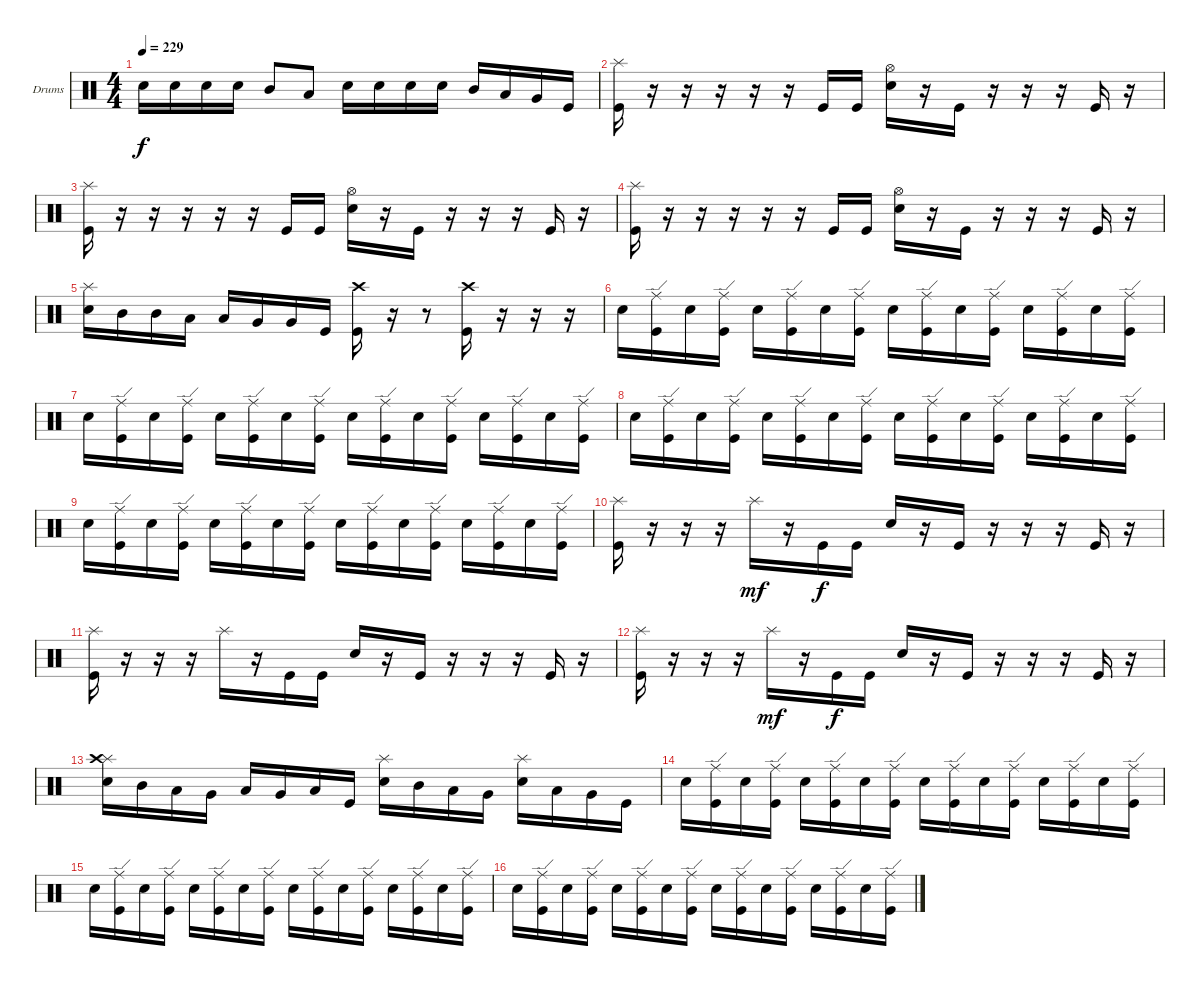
\defaultSystemsLayout 4
\bracketExtendMode groupsimilarinstruments
\firstSystemTrackNameOrientation horizontal
\otherSystemsTrackNameOrientation horizontal
\track ("Drumkit" "Drums") {instrument percussion}
\staff {score}
\articulation defaults
\ts (4 4)
\tempo 229
\clef neutral
\ks c "Snare (hit) 2".16{dy f} "Snare (hit) 2".16 "Snare (hit) 2".16 "Snare (hit) 2".16 "Mid Tom (hit)".8 "Low Tom (hit)".8 "Snare (hit) 2".16 "Snare (hit) 2".16 "Snare (hit) 2".16 "Snare (hit) 2".16 "Mid Tom (hit)".16 "Low Tom (hit)".16 "Very Low Tom (hit)".16 "Kick (hit)".16
|
("Kick (hit)" "Splash (hit)").16 r.16 r.16 r.16 r.16 r.16 "Kick (hit)".16 "Kick (hit)".16 ("Snare (hit) 2" "Hi-Hat (open)").16 r.16 "Kick (hit)".16 r.16 r.16 r.16 "Kick (hit)".16 r.16 |
("Kick (hit)" "Splash (hit)").16 r.16 r.16 r.16 r.16 r.16 "Kick (hit)".16 "Kick (hit)".16 ("Snare (hit) 2" "Hi-Hat (open)").16 r.16 "Kick (hit)".16 r.16 r.16 r.16 "Kick (hit)".16 r.16 |
("Kick (hit)" "Splash (hit)").16 r.16 r.16 r.16 r.16 r.16 "Kick (hit)".16 "Kick (hit)".16 ("Snare (hit) 2" "Hi-Hat (open)").16 r.16 "Kick (hit)".16 r.16 r.16 r.16 "Kick (hit)".16 r.16 |
("Splash (hit)" "Snare (hit) 2").16 "Mid Tom (hit)".16 "Mid Tom (hit)".16 "Low Tom (hit)".16 "Low Tom (hit)".16 "Very Low Tom (hit)".16 "Very Low Tom (hit)".16 "Kick (hit)".16 ("Kick (hit)" "Crash high (hit)").16 r.16 r.8 ("Kick (hit)" "Crash high (hit)").16 r.16 r.16 r.16 |
"Snare (hit) 2".16 ("Kick (hit)" "Ride (edge)").16 "Snare (hit) 2".16 ("Kick (hit)" "Ride (edge)").16 "Snare (hit) 2".16 ("Kick (hit)" "Ride (edge)").16 "Snare (hit) 2".16 ("Kick (hit)" "Ride (edge)").16 "Snare (hit) 2".16 ("Kick (hit)" "Ride (edge)").16 "Snare (hit) 2".16 ("Kick (hit)" "Ride (edge)").16 "Snare (hit) 2".16 ("Kick (hit)" "Ride (edge)").16 "Snare (hit) 2".16 ("Kick (hit)" "Ride (edge)").16 |
"Snare (hit) 2".16 ("Kick (hit)" "Ride (edge)").16 "Snare (hit) 2".16 ("Kick (hit)" "Ride (edge)").16 "Snare (hit) 2".16 ("Kick (hit)" "Ride (edge)").16 "Snare (hit) 2".16 ("Kick (hit)" "Ride (edge)").16 "Snare (hit) 2".16 ("Kick (hit)" "Ride (edge)").16 "Snare (hit) 2".16 ("Kick (hit)" "Ride (edge)").16 "Snare (hit) 2".16 ("Kick (hit)" "Ride (edge)").16 "Snare (hit) 2".16 ("Kick (hit)" "Ride (edge)").16 |
"Snare (hit) 2".16 ("Kick (hit)" "Ride (edge)").16 "Snare (hit) 2".16 ("Kick (hit)" "Ride (edge)").16 "Snare (hit) 2".16 ("Kick (hit)" "Ride (edge)").16 "Snare (hit) 2".16 ("Kick (hit)" "Ride (edge)").16 "Snare (hit) 2".16 ("Kick (hit)" "Ride (edge)").16 "Snare (hit) 2".16 ("Kick (hit)" "Ride (edge)").16 "Snare (hit) 2".16 ("Kick (hit)" "Ride (edge)").16 "Snare (hit) 2".16 ("Kick (hit)" "Ride (edge)").16 |
"Snare (hit) 2".16 ("Kick (hit)" "Ride (edge)").16 "Snare (hit) 2".16 ("Kick (hit)" "Ride (edge)").16 "Snare (hit) 2".16 ("Kick (hit)" "Ride (edge)").16 "Snare (hit) 2".16 ("Kick (hit)" "Ride (edge)").16 "Snare (hit) 2".16 ("Kick (hit)" "Ride (edge)").16 "Snare (hit) 2".16 ("Kick (hit)" "Ride (edge)").16 "Snare (hit) 2".16 ("Kick (hit)" "Ride (edge)").16 "Snare (hit) 2".16 ("Kick (hit)" "Ride (edge)").16 |
("Kick (hit)" "Splash (hit)").16 r.16 r.16 r.16 "Splash (hit)".16{dy mf} r.16 "Kick (hit)".16{dy f} "Kick (hit)".16 "Snare (hit) 2".16 r.16 "Kick (hit)".16 r.16 r.16 r.16 "Kick (hit)".16 r.16 |
("Kick (hit)" "Splash (hit)").16 r.16 r.16 r.16 "Splash (hit)".16 r.16 "Kick (hit)".16 "Kick (hit)".16 "Snare (hit) 2".16 r.16 "Kick (hit)".16 r.16 r.16 r.16 "Kick (hit)".16 r.16 |
("Kick (hit)" "Splash (hit)").16 r.16 r.16 r.16 "Splash (hit)".16{dy mf} r.16 "Kick (hit)".16{dy f} "Kick (hit)".16 "Snare (hit) 2".16 r.16 "Kick (hit)".16 r.16 r.16 r.16 "Kick (hit)".16 r.16 |
("Snare (hit) 2" "Splash (hit)" "Crash high (hit)").16 "Mid Tom (hit)".16 "Low Tom (hit)".16 "Very Low Tom (hit)".16 "Low Tom (hit)".16 "Very Low Tom (hit)".16 "Low Tom (hit)".16 "Kick (hit)".16 ("Snare (hit) 2" "Splash (hit)").16 "Mid Tom (hit)".16 "Low Tom (hit)".16 "Very Low Tom (hit)".16 ("Snare (hit) 2" "Splash (hit)").16 "Low Tom (hit)".16 "Very Low Tom (hit)".16 "Kick (hit)".16 |
"Snare (hit) 2".16 ("Kick (hit)" "Ride (edge)").16 "Snare (hit) 2".16 ("Kick (hit)" "Ride (edge)").16 "Snare (hit) 2".16 ("Kick (hit)" "Ride (edge)").16 "Snare (hit) 2".16 ("Kick (hit)" "Ride (edge)").16 "Snare (hit) 2".16 ("Kick (hit)" "Ride (edge)").16 "Snare (hit) 2".16 ("Kick (hit)" "Ride (edge)").16 "Snare (hit) 2".16 ("Kick (hit)" "Ride (edge)").16 "Snare (hit) 2".16 ("Kick (hit)" "Ride (edge)").16 |
"Snare (hit) 2".16 ("Kick (hit)" "Ride (edge)").16 "Snare (hit) 2".16 ("Kick (hit)" "Ride (edge)").16 "Snare (hit) 2".16 ("Kick (hit)" "Ride (edge)").16 "Snare (hit) 2".16 ("Kick (hit)" "Ride (edge)").16 "Snare (hit) 2".16 ("Kick (hit)" "Ride (edge)").16 "Snare (hit) 2".16 ("Kick (hit)" "Ride (edge)").16 "Snare (hit) 2".16 ("Kick (hit)" "Ride (edge)").16 "Snare (hit) 2".16 ("Kick (hit)" "Ride (edge)").16 |
"Snare (hit) 2".16 ("Kick (hit)" "Ride (edge)").16 "Snare (hit) 2".16 ("Kick (hit)" "Ride (edge)").16 "Snare (hit) 2".16 ("Kick (hit)" "Ride (edge)").16 "Snare (hit) 2".16 ("Kick (hit)" "Ride (edge)").16 "Snare (hit) 2".16 ("Kick (hit)" "Ride (edge)").16 "Snare (hit) 2".16 ("Kick (hit)" "Ride (edge)").16 "Snare (hit) 2".16 ("Kick (hit)" "Ride (edge)").16 "Snare (hit) 2".16 ("Kick (hit)" "Ride (edge)").16
